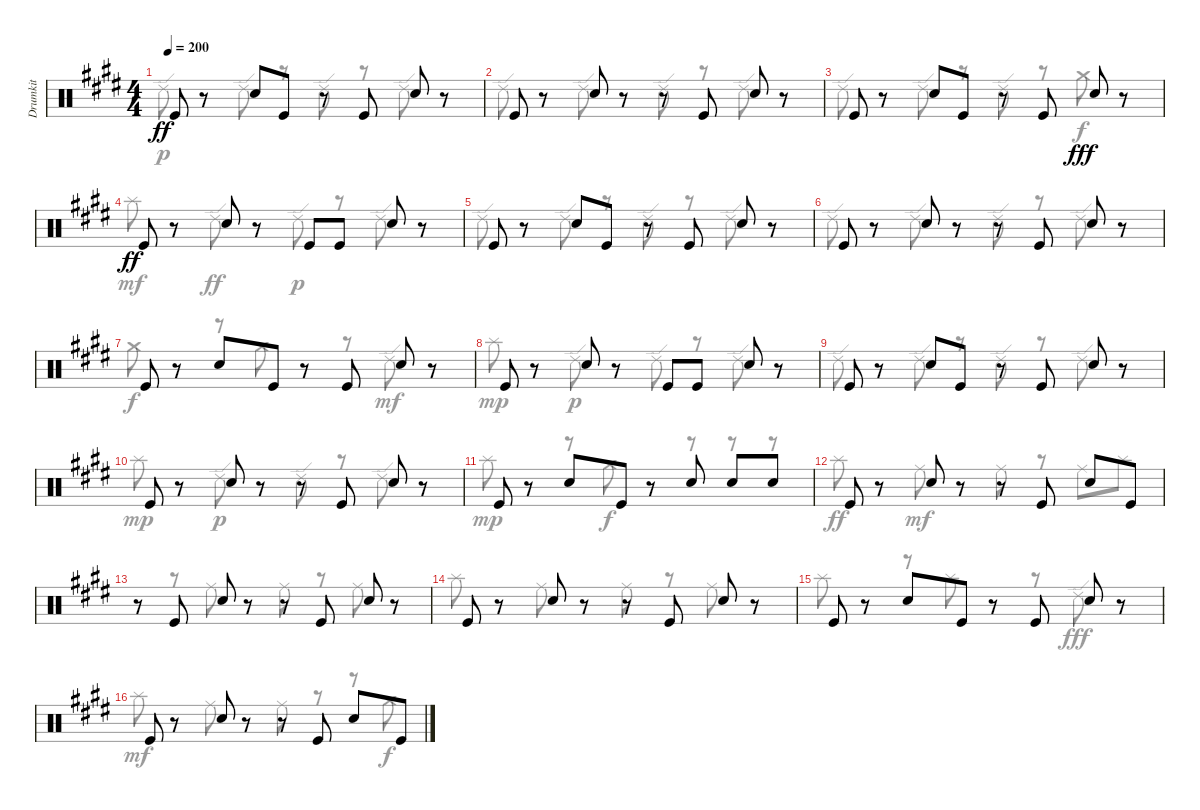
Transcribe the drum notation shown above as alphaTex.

\track ("Drumkit" "Drumkit") {instrument percussion}
\staff {score}
\articulation defaults
\voice
\ts (4 4)
\tempo 200
\clef neutral
\ks c#minor "Kick (hit)".8{dy ff}
r.8 "Snare (hit) 2".8 "Kick (hit)".8 r.8 "Kick (hit)".8 "Snare (hit) 2".8 r.8 |
"Kick (hit)".8 r.8 "Snare (hit) 2".8 r.8 r.8 "Kick (hit)".8 "Snare (hit) 2".8 r.8 |
"Kick (hit)".8 r.8 "Snare (hit) 2".8 "Kick (hit)".8 r.8 "Kick (hit)".8 "Snare (hit) 2".8{dy fff} r.8 |
"Kick (hit)".8{dy ff} r.8 "Snare (hit) 2".8 r.8 "Kick (hit)".8 "Kick (hit)".8 "Snare (hit) 2".8 r.8 |
"Kick (hit)".8 r.8 "Snare (hit) 2".8 "Kick (hit)".8 r.8 "Kick (hit)".8 "Snare (hit) 2".8 r.8 |
"Kick (hit)".8 r.8 "Snare (hit) 2".8 r.8 r.8 "Kick (hit)".8 "Snare (hit) 2".8 r.8 |
"Kick (hit)".8 r.8 "Snare (hit) 2".8 "Kick (hit)".8 r.8 "Kick (hit)".8 "Snare (hit) 2".8 r.8 |
"Kick (hit)".8 r.8 "Snare (hit) 2".8 r.8 "Kick (hit)".8 "Kick (hit)".8 "Snare (hit) 2".8 r.8 |
"Kick (hit)".8 r.8 "Snare (hit) 2".8 "Kick (hit)".8 r.8 "Kick (hit)".8 "Snare (hit) 2".8 r.8 |
"Kick (hit)".8 r.8 "Snare (hit) 2".8 r.8 r.8 "Kick (hit)".8 "Snare (hit) 2".8 r.8 |
"Kick (hit)".8 r.8 "Snare (hit) 2".8 "Kick (hit)".8 r.8 "Snare (hit) 2".8 "Snare (hit) 2".8 "Snare (hit) 2".8 |
"Kick (hit)".8 r.8 "Snare (hit) 2".8 r.8 r.8 "Kick (hit)".8 "Snare (hit) 2".8 "Kick (hit)".8 |
r.8 "Kick (hit)".8 "Snare (hit) 2".8 r.8 r.8 "Kick (hit)".8 "Snare (hit) 2".8 r.8 |
"Kick (hit)".8 r.8 "Snare (hit) 2".8 r.8 r.8 "Kick (hit)".8 "Snare (hit) 2".8 r.8 |
"Kick (hit)".8 r.8 "Snare (hit) 2".8 "Kick (hit)".8 r.8 "Kick (hit)".8 "Snare (hit) 2".8 r.8 |
"Kick (hit)".8 r.8 "Snare (hit) 2".8 r.8 r.8 "Kick (hit)".8 "Snare (hit) 2".8 "Kick (hit)".8
\voice
\clef neutral
\ottava regular
\simile none
\ks c#minor "Ride (edge) 2".8{dy p}
r.8 "Ride (edge) 2".8 r.8 "Ride (edge) 2".8 r.8 "Ride (edge) 2".8 r.8 |
"Ride (edge) 2".8 r.8 "Ride (edge) 2".8 r.8 "Ride (edge) 2".8 r.8 "Ride (edge) 2".8 r.8 |
"Ride (edge) 2".8 r.8 "Ride (edge) 2".8 r.8 "Ride (edge) 2".8 r.8 "Crash medium (hit)".8{dy f} r.8 |
"Splash (hit)".8{dy mf} r.8 "Ride (edge) 2".8{dy ff} r.8 "Ride (edge) 2".8{dy p} r.8 "Ride (edge) 2".8 r.8 |
"Ride (edge) 2".8 r.8 "Ride (edge) 2".8 r.8 "Ride (edge) 2".8 r.8 "Ride (edge) 2".8 r.8 |
"Ride (edge) 2".8 r.8 "Ride (edge) 2".8 r.8 "Ride (edge) 2".8 r.8 "Ride (edge) 2".8 r.8 |
"Crash medium (hit)".8{dy f} r.8 r.8 "Crash medium (hit)".8 r.8 r.8 "Ride (edge) 2".8{dy mf} r.8 |
"Splash (hit)".8{dy mp} r.8 "Ride (edge) 2".8{dy p} r.8 "Ride (edge) 2".8 r.8 "Ride (edge) 2".8 r.8 |
"Ride (edge) 2".8 r.8 "Ride (edge) 2".8 r.8 "Ride (edge) 2".8 r.8 "Ride (edge) 2".8 r.8 |
"Splash (hit)".8{dy mp} r.8 "Ride (edge) 2".8{dy p} r.8 "Ride (edge) 2".8 r.8 "Ride (edge) 2".8 r.8 |
"Splash (hit)".8{dy mp} r.8 r.8 "Crash medium (hit)".8{dy f} r.8 r.8 r.8 r.8 |
"Splash (hit)".8{dy ff} r.8 "Ride (middle)".8{dy mf} r.8 "Ride (middle)".8 r.8 "Ride (middle)".8 "Splash (hit)".8 |
r.8 r.8 "Ride (middle)".8 r.8 "Ride (middle)".8 r.8 "Ride (middle)".8 r.8 |
"Splash (hit)".8 r.8 "Ride (middle)".8 r.8 "Ride (middle)".8 r.8 "Ride (middle)".8 r.8 |
"Splash (hit)".8 r.8 r.8 "Splash (hit)".8 r.8 r.8 "Ride (edge) 2".8{dy fff} r.8 |
"Splash (hit)".8{dy mf} r.8 "Ride (middle)".8 r.8 "Ride (middle)".8 r.8 r.8 "Crash medium (hit)".8{dy f}
